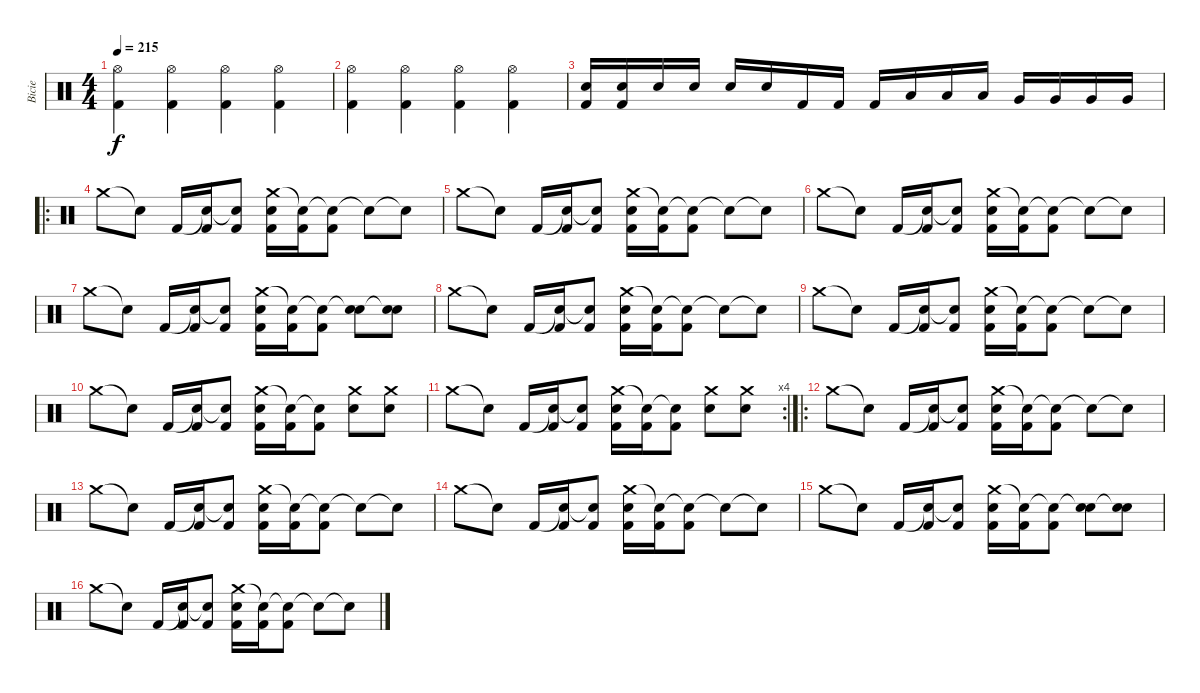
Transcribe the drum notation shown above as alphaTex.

\track ("Bicie" "Bicie") {instrument percussion}
\staff {score}
\articulation defaults
\ts (4 4)
\tempo 215
\clef neutral
\ks c
("Hi-Hat (open)" "Kick (hit) 2").4{dy f} ("Hi-Hat (open)" "Kick (hit) 2").4 ("Hi-Hat (open)" "Kick (hit) 2").4 ("Hi-Hat (open)" "Kick (hit) 2").4 |
("Hi-Hat (open)" "Kick (hit) 2").4 ("Hi-Hat (open)" "Kick (hit) 2").4 ("Hi-Hat (open)" "Kick (hit) 2").4 ("Hi-Hat (open)" "Kick (hit) 2").4 |
("Electric Snare (hit)" "Kick (hit) 2").16 ("Electric Snare (hit)" "Kick (hit) 2").16 "Electric Snare (hit)".16 "Electric Snare (hit)".16 "Electric Snare (hit)".16 "Electric Snare (hit)".16 "Kick (hit) 2".16 "Kick (hit) 2".16 "Kick (hit) 2".16 "Low Tom (hit)".16 "Low Tom (hit)".16 "Low Tom (hit)".16 "Very Low Tom (hit)".16 "Very Low Tom (hit)".16 "Very Low Tom (hit)".16 "Very Low Tom (hit)".16 |
\ro "Crash medium (hit)".8 "Snare (hit)"{t}.8 "Kick (hit) 2".16
("Snare (hit)"{t} "Kick (hit) 2").16 ("Snare (hit)"{t} "Kick (hit) 2").8 ("Crash medium (hit)" "Electric Snare (hit)" "Kick (hit) 2").16 ("Snare (hit)"{t} "Kick (hit) 2").16 ("Snare (hit)"{t} "Kick (hit) 2").8 "Snare (hit)"{t}.8 "Snare (hit)"{t}.8 |
"Crash medium (hit)".8 "Snare (hit)"{t}.8 "Kick (hit) 2".16 ("Snare (hit)"{t} "Kick (hit) 2").16 ("Snare (hit)"{t} "Kick (hit) 2").8 ("Crash medium (hit)" "Electric Snare (hit)" "Kick (hit) 2").16 ("Snare (hit)"{t} "Kick (hit) 2").16 ("Snare (hit)"{t} "Kick (hit) 2").8 "Snare (hit)"{t}.8 "Snare (hit)"{t}.8 |
"Crash medium (hit)".8 "Snare (hit)"{t}.8 "Kick (hit) 2".16 ("Snare (hit)"{t} "Kick (hit) 2").16 ("Snare (hit)"{t} "Kick (hit) 2").8 ("Crash medium (hit)" "Electric Snare (hit)" "Kick (hit) 2").16 ("Snare (hit)"{t} "Kick (hit) 2").16 ("Snare (hit)"{t} "Kick (hit) 2").8 "Snare (hit)"{t}.8 "Snare (hit)"{t}.8 |
"Crash medium (hit)".8 "Snare (hit)"{t}.8 "Kick (hit) 2".16 ("Snare (hit)"{t} "Kick (hit) 2").16 ("Snare (hit)"{t} "Kick (hit) 2").8 ("Crash medium (hit)" "Electric Snare (hit)" "Kick (hit) 2").16 ("Snare (hit)"{t} "Kick (hit) 2").16 ("Snare (hit)"{t} "Kick (hit) 2").8 ("Snare (hit)"{t} "Electric Snare (hit)").8 ("Snare (hit)"{t} "Electric Snare (hit)").8 |
"Crash medium (hit)".8 "Snare (hit)"{t}.8 "Kick (hit) 2".16 ("Snare (hit)"{t} "Kick (hit) 2").16 ("Snare (hit)"{t} "Kick (hit) 2").8 ("Crash medium (hit)" "Electric Snare (hit)" "Kick (hit) 2").16 ("Snare (hit)"{t} "Kick (hit) 2").16 ("Snare (hit)"{t} "Kick (hit) 2").8 "Snare (hit)"{t}.8 "Snare (hit)"{t}.8 |
"Crash medium (hit)".8 "Snare (hit)"{t}.8 "Kick (hit) 2".16 ("Snare (hit)"{t} "Kick (hit) 2").16 ("Snare (hit)"{t} "Kick (hit) 2").8 ("Crash medium (hit)" "Electric Snare (hit)" "Kick (hit) 2").16 ("Snare (hit)"{t} "Kick (hit) 2").16 ("Snare (hit)"{t} "Kick (hit) 2").8 "Snare (hit)"{t}.8 "Snare (hit)"{t}.8 |
"Crash medium (hit)".8 "Snare (hit)"{t}.8 "Kick (hit) 2".16 ("Snare (hit)"{t} "Kick (hit) 2").16 ("Snare (hit)"{t} "Kick (hit) 2").8 ("Crash medium (hit)" "Electric Snare (hit)" "Kick (hit) 2").16 ("Snare (hit)"{t} "Kick (hit) 2").16 ("Snare (hit)"{t} "Kick (hit) 2").8 ("Crash medium (hit)" "Electric Snare (hit)").8 ("Crash medium (hit)" "Electric Snare (hit)").8 |
\rc 4 "Crash medium (hit)".8 "Snare (hit)"{t}.8 "Kick (hit) 2".16
("Snare (hit)"{t} "Kick (hit) 2").16 ("Snare (hit)"{t} "Kick (hit) 2").8 ("Crash medium (hit)" "Electric Snare (hit)" "Kick (hit) 2").16 ("Snare (hit)"{t} "Kick (hit) 2").16 ("Snare (hit)"{t} "Kick (hit) 2").8 ("Crash medium (hit)" "Electric Snare (hit)").8 ("Crash medium (hit)" "Electric Snare (hit)").8 |
\ro "Crash medium (hit)".8 "Snare (hit)"{t}.8 "Kick (hit) 2".16
("Snare (hit)"{t} "Kick (hit) 2").16 ("Snare (hit)"{t} "Kick (hit) 2").8 ("Crash medium (hit)" "Electric Snare (hit)" "Kick (hit) 2").16 ("Snare (hit)"{t} "Kick (hit) 2").16 ("Snare (hit)"{t} "Kick (hit) 2").8 "Snare (hit)"{t}.8 "Snare (hit)"{t}.8 |
"Crash medium (hit)".8 "Snare (hit)"{t}.8 "Kick (hit) 2".16 ("Snare (hit)"{t} "Kick (hit) 2").16 ("Snare (hit)"{t} "Kick (hit) 2").8 ("Crash medium (hit)" "Electric Snare (hit)" "Kick (hit) 2").16 ("Snare (hit)"{t} "Kick (hit) 2").16 ("Snare (hit)"{t} "Kick (hit) 2").8 "Snare (hit)"{t}.8 "Snare (hit)"{t}.8 |
"Crash medium (hit)".8 "Snare (hit)"{t}.8 "Kick (hit) 2".16 ("Snare (hit)"{t} "Kick (hit) 2").16 ("Snare (hit)"{t} "Kick (hit) 2").8 ("Crash medium (hit)" "Electric Snare (hit)" "Kick (hit) 2").16 ("Snare (hit)"{t} "Kick (hit) 2").16 ("Snare (hit)"{t} "Kick (hit) 2").8 "Snare (hit)"{t}.8 "Snare (hit)"{t}.8 |
"Crash medium (hit)".8 "Snare (hit)"{t}.8 "Kick (hit) 2".16 ("Snare (hit)"{t} "Kick (hit) 2").16 ("Snare (hit)"{t} "Kick (hit) 2").8 ("Crash medium (hit)" "Electric Snare (hit)" "Kick (hit) 2").16 ("Snare (hit)"{t} "Kick (hit) 2").16 ("Snare (hit)"{t} "Kick (hit) 2").8 ("Snare (hit)"{t} "Electric Snare (hit)").8 ("Snare (hit)"{t} "Electric Snare (hit)").8 |
"Crash medium (hit)".8 "Snare (hit)"{t}.8 "Kick (hit) 2".16 ("Snare (hit)"{t} "Kick (hit) 2").16 ("Snare (hit)"{t} "Kick (hit) 2").8 ("Crash medium (hit)" "Electric Snare (hit)" "Kick (hit) 2").16 ("Snare (hit)"{t} "Kick (hit) 2").16 ("Snare (hit)"{t} "Kick (hit) 2").8 "Snare (hit)"{t}.8 "Snare (hit)"{t}.8
